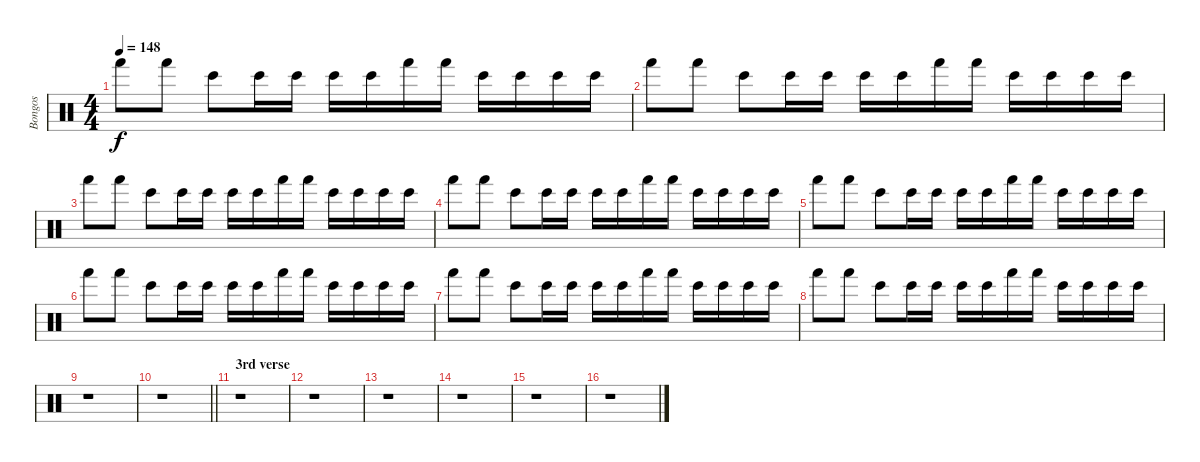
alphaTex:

\track ("Bongos" "Bongos") {instrument percussion}
\staff
\articulation defaults
\ts (4 4)
\tempo 148
\clef neutral
\ks c "Hand (hit)".8{dy f} "Hand (hit)".8 "Bongo High (hit)".8 "Bongo High (hit)".16 "Bongo High (hit)".16 "Bongo High (hit)".16 "Bongo High (hit)".16 "Hand (hit)".16 "Hand (hit)".16 "Bongo High (hit)".16 "Bongo High (hit)".16 "Bongo High (hit)".16 "Bongo High (hit)".16
|
"Hand (hit)".8 "Hand (hit)".8 "Bongo High (hit)".8 "Bongo High (hit)".16 "Bongo High (hit)".16 "Bongo High (hit)".16 "Bongo High (hit)".16 "Hand (hit)".16 "Hand (hit)".16 "Bongo High (hit)".16 "Bongo High (hit)".16 "Bongo High (hit)".16 "Bongo High (hit)".16 |
"Hand (hit)".8 "Hand (hit)".8 "Bongo High (hit)".8 "Bongo High (hit)".16 "Bongo High (hit)".16 "Bongo High (hit)".16 "Bongo High (hit)".16 "Hand (hit)".16 "Hand (hit)".16 "Bongo High (hit)".16 "Bongo High (hit)".16 "Bongo High (hit)".16 "Bongo High (hit)".16 |
"Hand (hit)".8 "Hand (hit)".8 "Bongo High (hit)".8 "Bongo High (hit)".16 "Bongo High (hit)".16 "Bongo High (hit)".16 "Bongo High (hit)".16 "Hand (hit)".16 "Hand (hit)".16 "Bongo High (hit)".16 "Bongo High (hit)".16 "Bongo High (hit)".16 "Bongo High (hit)".16 |
"Hand (hit)".8 "Hand (hit)".8 "Bongo High (hit)".8 "Bongo High (hit)".16 "Bongo High (hit)".16 "Bongo High (hit)".16 "Bongo High (hit)".16 "Hand (hit)".16 "Hand (hit)".16 "Bongo High (hit)".16 "Bongo High (hit)".16 "Bongo High (hit)".16 "Bongo High (hit)".16 |
"Hand (hit)".8 "Hand (hit)".8 "Bongo High (hit)".8 "Bongo High (hit)".16 "Bongo High (hit)".16 "Bongo High (hit)".16 "Bongo High (hit)".16 "Hand (hit)".16 "Hand (hit)".16 "Bongo High (hit)".16 "Bongo High (hit)".16 "Bongo High (hit)".16 "Bongo High (hit)".16 |
"Hand (hit)".8 "Hand (hit)".8 "Bongo High (hit)".8 "Bongo High (hit)".16 "Bongo High (hit)".16 "Bongo High (hit)".16 "Bongo High (hit)".16 "Hand (hit)".16 "Hand (hit)".16 "Bongo High (hit)".16 "Bongo High (hit)".16 "Bongo High (hit)".16 "Bongo High (hit)".16 |
"Hand (hit)".8 "Hand (hit)".8 "Bongo High (hit)".8 "Bongo High (hit)".16 "Bongo High (hit)".16 "Bongo High (hit)".16 "Bongo High (hit)".16 "Hand (hit)".16 "Hand (hit)".16 "Bongo High (hit)".16 "Bongo High (hit)".16 "Bongo High (hit)".16 "Bongo High (hit)".16 |
r.1 |
\barLineRight lightlight
r.1 |
\section ("" "3rd verse")
r.1 |
r.1 |
r.1 |
r.1 |
r.1 |
r.1
